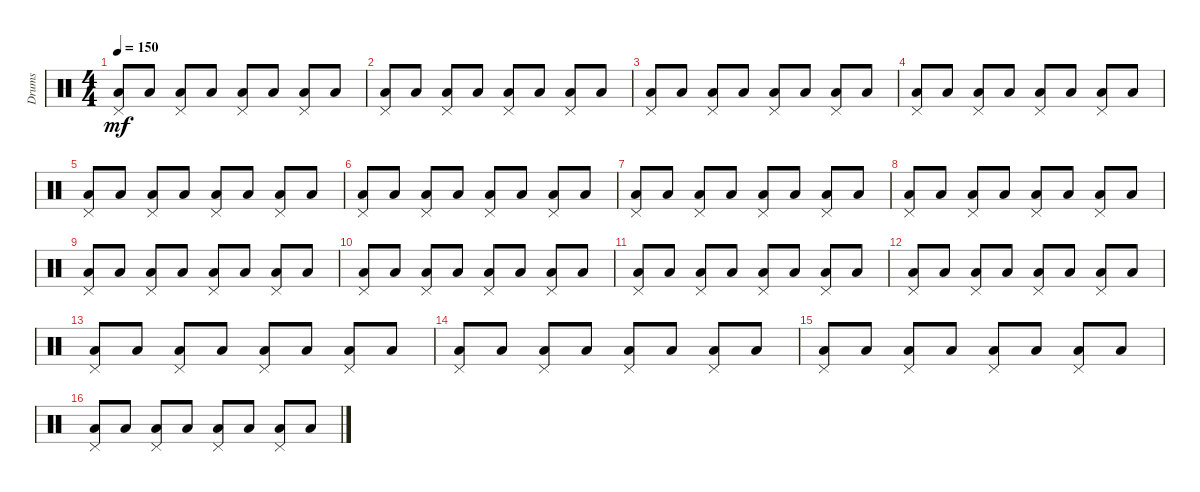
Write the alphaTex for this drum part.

\track ("Drums" "Drums") {instrument percussion}
\staff {score}
\articulation defaults
\ts (4 4)
\tempo 150
\clef neutral
\ks c
("Low Floor Tom (hit)" "Pedal Hi-Hat (hit)").8{dy mf} "Low Floor Tom (hit)".8 ("Low Floor Tom (hit)" "Pedal Hi-Hat (hit)").8 "Low Floor Tom (hit)".8 ("Low Floor Tom (hit)" "Pedal Hi-Hat (hit)").8 "Low Floor Tom (hit)".8 ("Low Floor Tom (hit)" "Pedal Hi-Hat (hit)").8 "Low Floor Tom (hit)".8 |
("Low Floor Tom (hit)" "Pedal Hi-Hat (hit)").8 "Low Floor Tom (hit)".8 ("Low Floor Tom (hit)" "Pedal Hi-Hat (hit)").8 "Low Floor Tom (hit)".8 ("Low Floor Tom (hit)" "Pedal Hi-Hat (hit)").8 "Low Floor Tom (hit)".8 ("Low Floor Tom (hit)" "Pedal Hi-Hat (hit)").8 "Low Floor Tom (hit)".8 |
("Low Floor Tom (hit)" "Pedal Hi-Hat (hit)").8 "Low Floor Tom (hit)".8 ("Low Floor Tom (hit)" "Pedal Hi-Hat (hit)").8 "Low Floor Tom (hit)".8 ("Low Floor Tom (hit)" "Pedal Hi-Hat (hit)").8 "Low Floor Tom (hit)".8 ("Low Floor Tom (hit)" "Pedal Hi-Hat (hit)").8 "Low Floor Tom (hit)".8 |
("Pedal Hi-Hat (hit)" "Low Floor Tom (hit)").8 "Low Floor Tom (hit)".8 ("Pedal Hi-Hat (hit)" "Low Floor Tom (hit)").8 "Low Floor Tom (hit)".8 ("Pedal Hi-Hat (hit)" "Low Floor Tom (hit)").8 "Low Floor Tom (hit)".8 ("Pedal Hi-Hat (hit)" "Low Floor Tom (hit)").8 "Low Floor Tom (hit)".8 |
("Pedal Hi-Hat (hit)" "Low Floor Tom (hit)").8 "Low Floor Tom (hit)".8 ("Pedal Hi-Hat (hit)" "Low Floor Tom (hit)").8 "Low Floor Tom (hit)".8 ("Pedal Hi-Hat (hit)" "Low Floor Tom (hit)").8 "Low Floor Tom (hit)".8 ("Pedal Hi-Hat (hit)" "Low Floor Tom (hit)").8 "Low Floor Tom (hit)".8 |
("Low Floor Tom (hit)" "Pedal Hi-Hat (hit)").8 "Low Floor Tom (hit)".8 ("Low Floor Tom (hit)" "Pedal Hi-Hat (hit)").8 "Low Floor Tom (hit)".8 ("Low Floor Tom (hit)" "Pedal Hi-Hat (hit)").8 "Low Floor Tom (hit)".8 ("Low Floor Tom (hit)" "Pedal Hi-Hat (hit)").8 "Low Floor Tom (hit)".8 |
("Low Floor Tom (hit)" "Pedal Hi-Hat (hit)").8 "Low Floor Tom (hit)".8 ("Low Floor Tom (hit)" "Pedal Hi-Hat (hit)").8 "Low Floor Tom (hit)".8 ("Low Floor Tom (hit)" "Pedal Hi-Hat (hit)").8 "Low Floor Tom (hit)".8 ("Low Floor Tom (hit)" "Pedal Hi-Hat (hit)").8 "Low Floor Tom (hit)".8 |
("Pedal Hi-Hat (hit)" "Low Floor Tom (hit)").8 "Low Floor Tom (hit)".8 ("Pedal Hi-Hat (hit)" "Low Floor Tom (hit)").8 "Low Floor Tom (hit)".8 ("Pedal Hi-Hat (hit)" "Low Floor Tom (hit)").8 "Low Floor Tom (hit)".8 ("Pedal Hi-Hat (hit)" "Low Floor Tom (hit)").8 "Low Floor Tom (hit)".8 |
("Pedal Hi-Hat (hit)" "Low Floor Tom (hit)").8 "Low Floor Tom (hit)".8 ("Pedal Hi-Hat (hit)" "Low Floor Tom (hit)").8 "Low Floor Tom (hit)".8 ("Pedal Hi-Hat (hit)" "Low Floor Tom (hit)").8 "Low Floor Tom (hit)".8 ("Pedal Hi-Hat (hit)" "Low Floor Tom (hit)").8 "Low Floor Tom (hit)".8 |
("Pedal Hi-Hat (hit)" "Low Floor Tom (hit)").8 "Low Floor Tom (hit)".8 ("Pedal Hi-Hat (hit)" "Low Floor Tom (hit)").8 "Low Floor Tom (hit)".8 ("Pedal Hi-Hat (hit)" "Low Floor Tom (hit)").8 "Low Floor Tom (hit)".8 ("Pedal Hi-Hat (hit)" "Low Floor Tom (hit)").8 "Low Floor Tom (hit)".8 |
("Pedal Hi-Hat (hit)" "Low Floor Tom (hit)").8 "Low Floor Tom (hit)".8 ("Pedal Hi-Hat (hit)" "Low Floor Tom (hit)").8 "Low Floor Tom (hit)".8 ("Pedal Hi-Hat (hit)" "Low Floor Tom (hit)").8 "Low Floor Tom (hit)".8 ("Pedal Hi-Hat (hit)" "Low Floor Tom (hit)").8 "Low Floor Tom (hit)".8 |
("Low Floor Tom (hit)" "Pedal Hi-Hat (hit)").8 "Low Floor Tom (hit)".8 ("Low Floor Tom (hit)" "Pedal Hi-Hat (hit)").8 "Low Floor Tom (hit)".8 ("Low Floor Tom (hit)" "Pedal Hi-Hat (hit)").8 "Low Floor Tom (hit)".8 ("Low Floor Tom (hit)" "Pedal Hi-Hat (hit)").8 "Low Floor Tom (hit)".8 |
("Low Floor Tom (hit)" "Pedal Hi-Hat (hit)").8 "Low Floor Tom (hit)".8 ("Low Floor Tom (hit)" "Pedal Hi-Hat (hit)").8 "Low Floor Tom (hit)".8 ("Low Floor Tom (hit)" "Pedal Hi-Hat (hit)").8 "Low Floor Tom (hit)".8 ("Low Floor Tom (hit)" "Pedal Hi-Hat (hit)").8 "Low Floor Tom (hit)".8 |
("Pedal Hi-Hat (hit)" "Low Floor Tom (hit)").8 "Low Floor Tom (hit)".8 ("Pedal Hi-Hat (hit)" "Low Floor Tom (hit)").8 "Low Floor Tom (hit)".8 ("Pedal Hi-Hat (hit)" "Low Floor Tom (hit)").8 "Low Floor Tom (hit)".8 ("Pedal Hi-Hat (hit)" "Low Floor Tom (hit)").8 "Low Floor Tom (hit)".8 |
("Pedal Hi-Hat (hit)" "Low Floor Tom (hit)").8 "Low Floor Tom (hit)".8 ("Pedal Hi-Hat (hit)" "Low Floor Tom (hit)").8 "Low Floor Tom (hit)".8 ("Pedal Hi-Hat (hit)" "Low Floor Tom (hit)").8 "Low Floor Tom (hit)".8 ("Pedal Hi-Hat (hit)" "Low Floor Tom (hit)").8 "Low Floor Tom (hit)".8 |
("Low Floor Tom (hit)" "Pedal Hi-Hat (hit)").8 "Low Floor Tom (hit)".8 ("Low Floor Tom (hit)" "Pedal Hi-Hat (hit)").8 "Low Floor Tom (hit)".8 ("Low Floor Tom (hit)" "Pedal Hi-Hat (hit)").8 "Low Floor Tom (hit)".8 ("Low Floor Tom (hit)" "Pedal Hi-Hat (hit)").8 "Low Floor Tom (hit)".8
